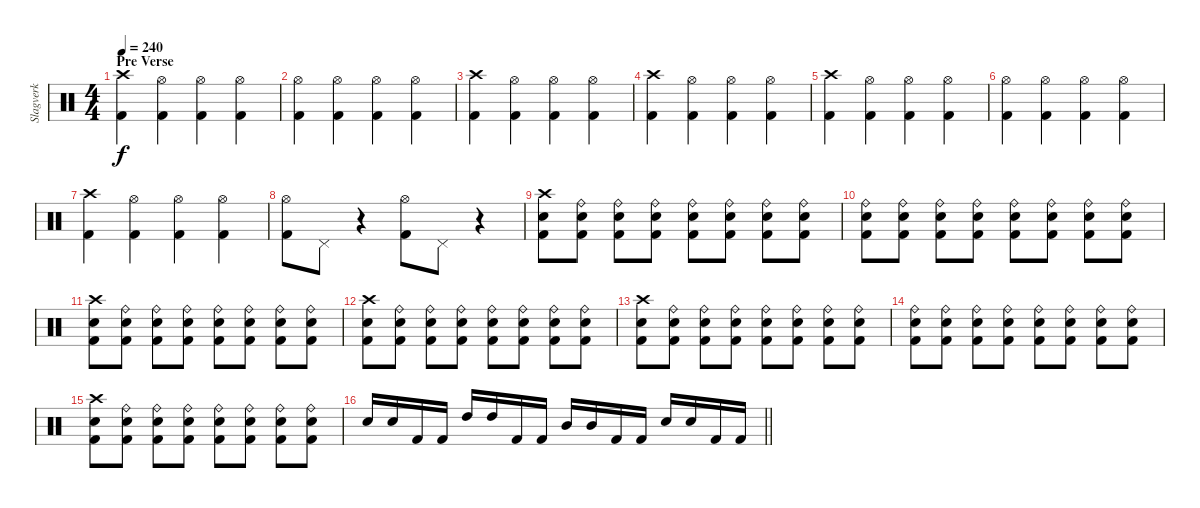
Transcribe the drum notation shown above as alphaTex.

\track ("Slagverk" "Slagverk") {instrument percussion}
\staff {score}
\articulation defaults
\ts (4 4)
\section ("" "Pre Verse")
\tempo 240
\clef neutral
\ks c
("Crash high (hit)" "Kick (hit) 2").4{dy f} ("Hi-Hat (open)" "Kick (hit) 2").4 ("Hi-Hat (open)" "Kick (hit) 2").4 ("Hi-Hat (open)" "Kick (hit) 2").4 |
("Hi-Hat (open)" "Kick (hit) 2").4 ("Hi-Hat (open)" "Kick (hit) 2").4 ("Hi-Hat (open)" "Kick (hit) 2").4 ("Hi-Hat (open)" "Kick (hit) 2").4 |
("Crash high (hit)" "Kick (hit) 2").4 ("Hi-Hat (open)" "Kick (hit) 2").4 ("Hi-Hat (open)" "Kick (hit) 2").4 ("Hi-Hat (open)" "Kick (hit) 2").4 |
("Crash high (hit)" "Kick (hit) 2").4 ("Hi-Hat (open)" "Kick (hit) 2").4 ("Hi-Hat (open)" "Kick (hit) 2").4 ("Hi-Hat (open)" "Kick (hit) 2").4 |
("Crash high (hit)" "Kick (hit) 2").4 ("Hi-Hat (open)" "Kick (hit) 2").4 ("Hi-Hat (open)" "Kick (hit) 2").4 ("Hi-Hat (open)" "Kick (hit) 2").4 |
("Hi-Hat (open)" "Kick (hit) 2").4 ("Hi-Hat (open)" "Kick (hit) 2").4 ("Hi-Hat (open)" "Kick (hit) 2").4 ("Hi-Hat (open)" "Kick (hit) 2").4 |
("Crash high (hit)" "Kick (hit) 2").4 ("Hi-Hat (open)" "Kick (hit) 2").4 ("Hi-Hat (open)" "Kick (hit) 2").4 ("Hi-Hat (open)" "Kick (hit) 2").4 |
("Hi-Hat (open)" "Kick (hit) 2").8 "Pedal Hi-Hat (hit)".8 r.4 ("Hi-Hat (open)" "Kick (hit) 2").8 "Pedal Hi-Hat (hit)".8 r.4 |
("Crash high (hit)" "Electric Snare (hit)" "Kick (hit) 2").8 ("Ride (bell)" "Electric Snare (hit)" "Kick (hit) 2").8 ("Ride (bell)" "Electric Snare (hit)" "Kick (hit) 2").8 ("Ride (bell)" "Electric Snare (hit)" "Kick (hit) 2").8 ("Ride (bell)" "Electric Snare (hit)" "Kick (hit) 2").8 ("Ride (bell)" "Electric Snare (hit)" "Kick (hit) 2").8 ("Ride (bell)" "Electric Snare (hit)" "Kick (hit) 2").8 ("Ride (bell)" "Electric Snare (hit)" "Kick (hit) 2").8 |
("Ride (bell)" "Electric Snare (hit)" "Kick (hit) 2").8 ("Ride (bell)" "Electric Snare (hit)" "Kick (hit) 2").8 ("Ride (bell)" "Electric Snare (hit)" "Kick (hit) 2").8 ("Ride (bell)" "Electric Snare (hit)" "Kick (hit) 2").8 ("Ride (bell)" "Electric Snare (hit)" "Kick (hit) 2").8 ("Ride (bell)" "Electric Snare (hit)" "Kick (hit) 2").8 ("Ride (bell)" "Electric Snare (hit)" "Kick (hit) 2").8 ("Ride (bell)" "Electric Snare (hit)" "Kick (hit) 2").8 |
("Crash high (hit)" "Electric Snare (hit)" "Kick (hit) 2").8 ("Ride (bell)" "Electric Snare (hit)" "Kick (hit) 2").8 ("Ride (bell)" "Electric Snare (hit)" "Kick (hit) 2").8 ("Ride (bell)" "Electric Snare (hit)" "Kick (hit) 2").8 ("Ride (bell)" "Electric Snare (hit)" "Kick (hit) 2").8 ("Ride (bell)" "Electric Snare (hit)" "Kick (hit) 2").8 ("Ride (bell)" "Electric Snare (hit)" "Kick (hit) 2").8 ("Ride (bell)" "Electric Snare (hit)" "Kick (hit) 2").8 |
("Crash high (hit)" "Electric Snare (hit)" "Kick (hit) 2").8 ("Ride (bell)" "Electric Snare (hit)" "Kick (hit) 2").8 ("Ride (bell)" "Electric Snare (hit)" "Kick (hit) 2").8 ("Ride (bell)" "Electric Snare (hit)" "Kick (hit) 2").8 ("Ride (bell)" "Electric Snare (hit)" "Kick (hit) 2").8 ("Ride (bell)" "Electric Snare (hit)" "Kick (hit) 2").8 ("Ride (bell)" "Electric Snare (hit)" "Kick (hit) 2").8 ("Ride (bell)" "Electric Snare (hit)" "Kick (hit) 2").8 |
("Crash high (hit)" "Electric Snare (hit)" "Kick (hit) 2").8 ("Ride (bell)" "Electric Snare (hit)" "Kick (hit) 2").8 ("Ride (bell)" "Electric Snare (hit)" "Kick (hit) 2").8 ("Ride (bell)" "Electric Snare (hit)" "Kick (hit) 2").8 ("Ride (bell)" "Electric Snare (hit)" "Kick (hit) 2").8 ("Ride (bell)" "Electric Snare (hit)" "Kick (hit) 2").8 ("Ride (bell)" "Electric Snare (hit)" "Kick (hit) 2").8 ("Ride (bell)" "Electric Snare (hit)" "Kick (hit) 2").8 |
("Ride (bell)" "Electric Snare (hit)" "Kick (hit) 2").8 ("Ride (bell)" "Electric Snare (hit)" "Kick (hit) 2").8 ("Ride (bell)" "Electric Snare (hit)" "Kick (hit) 2").8 ("Ride (bell)" "Electric Snare (hit)" "Kick (hit) 2").8 ("Ride (bell)" "Electric Snare (hit)" "Kick (hit) 2").8 ("Ride (bell)" "Electric Snare (hit)" "Kick (hit) 2").8 ("Ride (bell)" "Electric Snare (hit)" "Kick (hit) 2").8 ("Ride (bell)" "Electric Snare (hit)" "Kick (hit) 2").8 |
("Crash high (hit)" "Electric Snare (hit)" "Kick (hit) 2").8 ("Ride (bell)" "Electric Snare (hit)" "Kick (hit) 2").8 ("Ride (bell)" "Electric Snare (hit)" "Kick (hit) 2").8 ("Ride (bell)" "Electric Snare (hit)" "Kick (hit) 2").8 ("Ride (bell)" "Electric Snare (hit)" "Kick (hit) 2").8 ("Ride (bell)" "Electric Snare (hit)" "Kick (hit) 2").8 ("Ride (bell)" "Electric Snare (hit)" "Kick (hit) 2").8 ("Ride (bell)" "Electric Snare (hit)" "Kick (hit) 2").8 |
\barLineRight lightlight "Electric Snare (hit)".16 "Electric Snare (hit)".16 "Kick (hit) 2".16 "Kick (hit) 2".16 "High Tom (hit)".16 "High Tom (hit)".16 "Kick (hit) 2".16 "Kick (hit) 2".16 "Mid Tom (hit)".16 "Mid Tom (hit)".16 "Kick (hit) 2".16 "Kick (hit) 2".16 "Electric Snare (hit)".16 "Electric Snare (hit)".16 "Kick (hit) 2".16 "Kick (hit) 2".16
